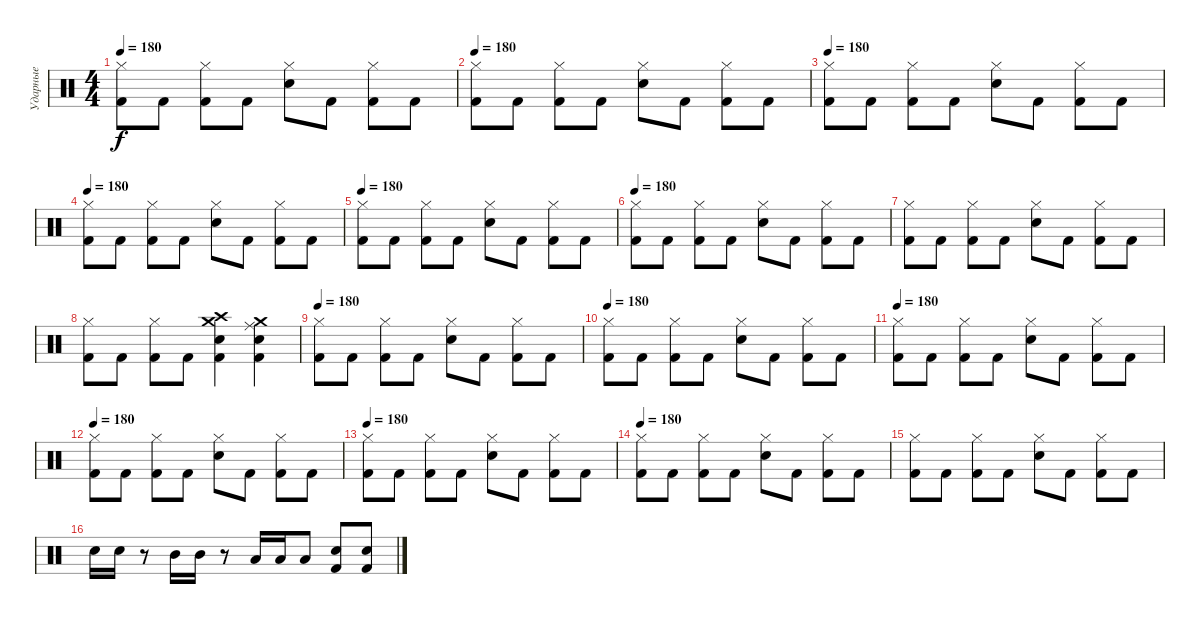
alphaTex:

\track ("Ударные" "Ударные") {instrument percussion}
\staff {score}
\articulation defaults
\ts (4 4)
\tempo 180
\clef neutral
\ks c
("Hi-Hat (closed)" "Kick (hit) 2").8{dy f} "Kick (hit) 2".8 ("Hi-Hat (closed)" "Kick (hit) 2").8 "Kick (hit) 2".8 ("Hi-Hat (closed)" "Snare (hit) 2").8 "Kick (hit) 2".8 ("Hi-Hat (closed)" "Kick (hit) 2").8 "Kick (hit) 2".8 |
\tempo 180
("Hi-Hat (closed)" "Kick (hit) 2").8 "Kick (hit) 2".8 ("Hi-Hat (closed)" "Kick (hit) 2").8 "Kick (hit) 2".8 ("Hi-Hat (closed)" "Snare (hit) 2").8 "Kick (hit) 2".8 ("Hi-Hat (closed)" "Kick (hit) 2").8 "Kick (hit) 2".8 |
\tempo 180
("Hi-Hat (closed)" "Kick (hit) 2").8 "Kick (hit) 2".8 ("Hi-Hat (closed)" "Kick (hit) 2").8 "Kick (hit) 2".8 ("Hi-Hat (closed)" "Snare (hit) 2").8 "Kick (hit) 2".8 ("Hi-Hat (closed)" "Kick (hit) 2").8 "Kick (hit) 2".8 |
\tempo 180
("Hi-Hat (closed)" "Kick (hit) 2").8 "Kick (hit) 2".8 ("Hi-Hat (closed)" "Kick (hit) 2").8 "Kick (hit) 2".8 ("Hi-Hat (closed)" "Snare (hit) 2").8 "Kick (hit) 2".8 ("Hi-Hat (closed)" "Kick (hit) 2").8 "Kick (hit) 2".8 |
\tempo 180
("Hi-Hat (closed)" "Kick (hit) 2").8 "Kick (hit) 2".8 ("Hi-Hat (closed)" "Kick (hit) 2").8 "Kick (hit) 2".8 ("Hi-Hat (closed)" "Snare (hit) 2").8 "Kick (hit) 2".8 ("Hi-Hat (closed)" "Kick (hit) 2").8 "Kick (hit) 2".8 |
\tempo 180
("Hi-Hat (closed)" "Kick (hit) 2").8 "Kick (hit) 2".8 ("Hi-Hat (closed)" "Kick (hit) 2").8 "Kick (hit) 2".8 ("Hi-Hat (closed)" "Snare (hit) 2").8 "Kick (hit) 2".8 ("Hi-Hat (closed)" "Kick (hit) 2").8 "Kick (hit) 2".8 |
("Hi-Hat (closed)" "Kick (hit) 2").8 "Kick (hit) 2".8 ("Hi-Hat (closed)" "Kick (hit) 2").8 "Kick (hit) 2".8 ("Hi-Hat (closed)" "Snare (hit) 2").8 "Kick (hit) 2".8 ("Hi-Hat (closed)" "Kick (hit) 2").8 "Kick (hit) 2".8 |
("Hi-Hat (closed)" "Kick (hit) 2").8 "Kick (hit) 2".8 ("Hi-Hat (closed)" "Kick (hit) 2").8 "Kick (hit) 2".8 ("Crash high (hit)" "Crash medium (hit)" "Snare (hit) 2" "Kick (hit) 2").4 ("Ride (middle)" "Crash medium (hit)" "Snare (hit) 2" "Kick (hit) 2").4 |
\tempo 180
("Hi-Hat (closed)" "Kick (hit) 2").8 "Kick (hit) 2".8 ("Hi-Hat (closed)" "Kick (hit) 2").8 "Kick (hit) 2".8 ("Hi-Hat (closed)" "Snare (hit) 2").8 "Kick (hit) 2".8 ("Hi-Hat (closed)" "Kick (hit) 2").8 "Kick (hit) 2".8 |
\tempo 180
("Hi-Hat (closed)" "Kick (hit) 2").8 "Kick (hit) 2".8 ("Hi-Hat (closed)" "Kick (hit) 2").8 "Kick (hit) 2".8 ("Hi-Hat (closed)" "Snare (hit) 2").8 "Kick (hit) 2".8 ("Hi-Hat (closed)" "Kick (hit) 2").8 "Kick (hit) 2".8 |
\tempo 180
("Hi-Hat (closed)" "Kick (hit) 2").8 "Kick (hit) 2".8 ("Hi-Hat (closed)" "Kick (hit) 2").8 "Kick (hit) 2".8 ("Hi-Hat (closed)" "Snare (hit) 2").8 "Kick (hit) 2".8 ("Hi-Hat (closed)" "Kick (hit) 2").8 "Kick (hit) 2".8 |
\tempo 180
("Hi-Hat (closed)" "Kick (hit) 2").8 "Kick (hit) 2".8 ("Hi-Hat (closed)" "Kick (hit) 2").8 "Kick (hit) 2".8 ("Hi-Hat (closed)" "Snare (hit) 2").8 "Kick (hit) 2".8 ("Hi-Hat (closed)" "Kick (hit) 2").8 "Kick (hit) 2".8 |
\tempo 180
("Hi-Hat (closed)" "Kick (hit) 2").8 "Kick (hit) 2".8 ("Hi-Hat (closed)" "Kick (hit) 2").8 "Kick (hit) 2".8 ("Hi-Hat (closed)" "Snare (hit) 2").8 "Kick (hit) 2".8 ("Hi-Hat (closed)" "Kick (hit) 2").8 "Kick (hit) 2".8 |
\tempo 180
("Hi-Hat (closed)" "Kick (hit) 2").8 "Kick (hit) 2".8 ("Hi-Hat (closed)" "Kick (hit) 2").8 "Kick (hit) 2".8 ("Hi-Hat (closed)" "Snare (hit) 2").8 "Kick (hit) 2".8 ("Hi-Hat (closed)" "Kick (hit) 2").8 "Kick (hit) 2".8 |
("Hi-Hat (closed)" "Kick (hit) 2").8 "Kick (hit) 2".8 ("Hi-Hat (closed)" "Kick (hit) 2").8 "Kick (hit) 2".8 ("Hi-Hat (closed)" "Snare (hit) 2").8 "Kick (hit) 2".8 ("Hi-Hat (closed)" "Kick (hit) 2").8 "Kick (hit) 2".8 |
"Snare (hit) 2".16 "Snare (hit) 2".16 r.8 "Mid Tom (hit)".16 "Mid Tom (hit)".16 r.8 "Low Tom (hit)".16 "Low Tom (hit)".16 "Low Tom (hit)".8 ("Kick (hit) 2" "Snare (hit) 2").8 ("Kick (hit) 2" "Snare (hit) 2").8
